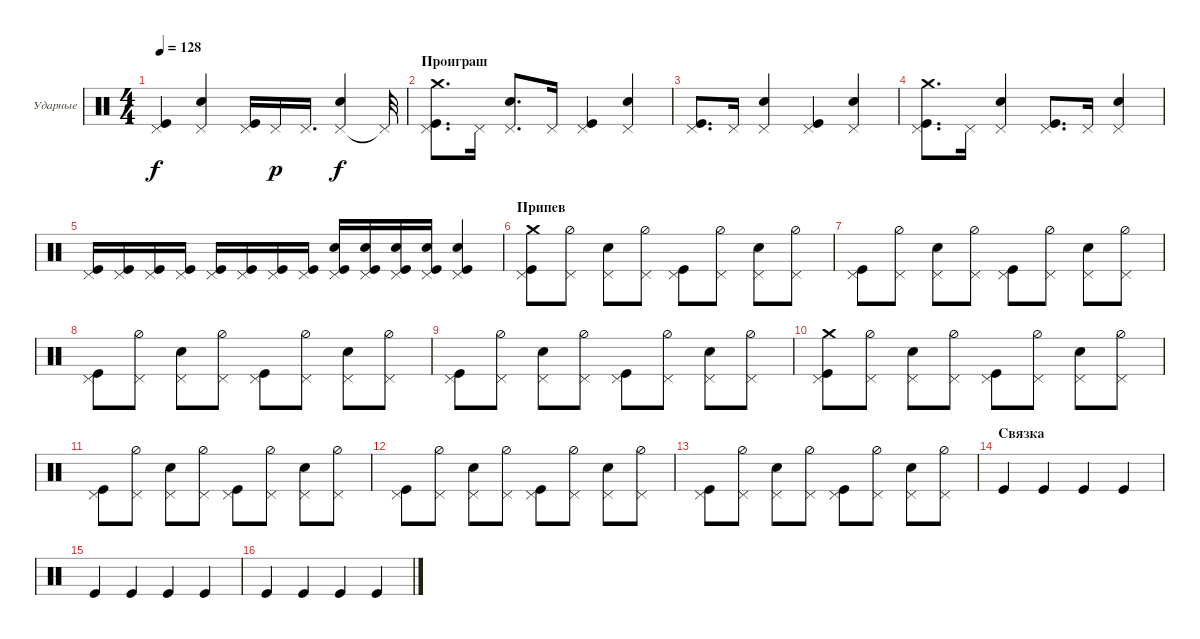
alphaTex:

\defaultSystemsLayout 4
\bracketExtendMode groupsimilarinstruments
\firstSystemTrackNameOrientation horizontal
\otherSystemsTrackNameOrientation horizontal
\track ("Е. Кулаков" "Ударные") {instrument percussion}
\staff {score}
\articulation defaults
\ts (4 4)
\tempo 128
\clef neutral
\ks c
("Pedal Hi-Hat (hit)" "Kick (hit)").4{dy f} ("Pedal Hi-Hat (hit)" "Snare (hit) 2").4 ("Pedal Hi-Hat (hit)" "Kick (hit)").16 "Pedal Hi-Hat (hit)".16{dy p} "Pedal Hi-Hat (hit)".16{d} ("Pedal Hi-Hat (hit)" "Snare (hit) 2").4{dy f} "Pedal Hi-Hat (hit)"{t}.32 |
\section ("" "Проиграш")
("Pedal Hi-Hat (hit)" "Kick (hit)" "Crash medium (hit)").8{d} "Pedal Hi-Hat (hit)".16 ("Pedal Hi-Hat (hit)" "Snare (hit) 2").8{d} "Pedal Hi-Hat (hit)".16 ("Pedal Hi-Hat (hit)" "Kick (hit)").4 ("Pedal Hi-Hat (hit)" "Snare (hit) 2").4 |
("Pedal Hi-Hat (hit)" "Kick (hit)").8{d} "Pedal Hi-Hat (hit)".16 ("Pedal Hi-Hat (hit)" "Snare (hit) 2").4 ("Pedal Hi-Hat (hit)" "Kick (hit)").4 ("Pedal Hi-Hat (hit)" "Snare (hit) 2").4 |
("Pedal Hi-Hat (hit)" "Kick (hit)" "Crash medium (hit)").8{d} "Pedal Hi-Hat (hit)".16 ("Pedal Hi-Hat (hit)" "Snare (hit) 2").4 ("Pedal Hi-Hat (hit)" "Kick (hit)").8{d} "Pedal Hi-Hat (hit)".16 ("Pedal Hi-Hat (hit)" "Snare (hit) 2").4 |
("Pedal Hi-Hat (hit)" "Kick (hit)").16 ("Pedal Hi-Hat (hit)" "Kick (hit)").16 ("Pedal Hi-Hat (hit)" "Kick (hit)").16 ("Pedal Hi-Hat (hit)" "Kick (hit)").16 ("Pedal Hi-Hat (hit)" "Kick (hit)").16 ("Pedal Hi-Hat (hit)" "Kick (hit)").16 ("Pedal Hi-Hat (hit)" "Kick (hit)").16 ("Pedal Hi-Hat (hit)" "Kick (hit)").16 ("Snare (hit) 2" "Kick (hit)" "Pedal Hi-Hat (hit)").16 ("Snare (hit) 2" "Kick (hit)" "Pedal Hi-Hat (hit)").16 ("Snare (hit) 2" "Kick (hit)" "Pedal Hi-Hat (hit)").16 ("Snare (hit) 2" "Kick (hit)" "Pedal Hi-Hat (hit)").16 ("Snare (hit) 2" "Kick (hit)" "Pedal Hi-Hat (hit)").4 |
\section ("" "Припев")
("Kick (hit)" "Pedal Hi-Hat (hit)" "Crash medium (hit)").8 ("Hi-Hat (half)" "Pedal Hi-Hat (hit)").8 ("Pedal Hi-Hat (hit)" "Snare (hit) 2").8 ("Hi-Hat (half)" "Pedal Hi-Hat (hit)").8 ("Kick (hit)" "Pedal Hi-Hat (hit)").8 ("Hi-Hat (half)" "Pedal Hi-Hat (hit)").8 ("Pedal Hi-Hat (hit)" "Snare (hit) 2").8 ("Hi-Hat (half)" "Pedal Hi-Hat (hit)").8 |
("Kick (hit)" "Pedal Hi-Hat (hit)").8 ("Hi-Hat (half)" "Pedal Hi-Hat (hit)").8 ("Pedal Hi-Hat (hit)" "Snare (hit) 2").8 ("Hi-Hat (half)" "Pedal Hi-Hat (hit)").8 ("Kick (hit)" "Pedal Hi-Hat (hit)").8 ("Hi-Hat (half)" "Pedal Hi-Hat (hit)").8 ("Pedal Hi-Hat (hit)" "Snare (hit) 2").8 ("Hi-Hat (half)" "Pedal Hi-Hat (hit)").8 |
("Kick (hit)" "Pedal Hi-Hat (hit)").8 ("Hi-Hat (half)" "Pedal Hi-Hat (hit)").8 ("Pedal Hi-Hat (hit)" "Snare (hit) 2").8 ("Hi-Hat (half)" "Pedal Hi-Hat (hit)").8 ("Kick (hit)" "Pedal Hi-Hat (hit)").8 ("Hi-Hat (half)" "Pedal Hi-Hat (hit)").8 ("Pedal Hi-Hat (hit)" "Snare (hit) 2").8 ("Hi-Hat (half)" "Pedal Hi-Hat (hit)").8 |
("Kick (hit)" "Pedal Hi-Hat (hit)").8 ("Hi-Hat (half)" "Pedal Hi-Hat (hit)").8 ("Pedal Hi-Hat (hit)" "Snare (hit) 2").8 ("Hi-Hat (half)" "Pedal Hi-Hat (hit)").8 ("Kick (hit)" "Pedal Hi-Hat (hit)").8 ("Hi-Hat (half)" "Pedal Hi-Hat (hit)").8 ("Pedal Hi-Hat (hit)" "Snare (hit) 2").8 ("Hi-Hat (half)" "Pedal Hi-Hat (hit)").8 |
("Kick (hit)" "Pedal Hi-Hat (hit)" "Crash medium (hit)").8 ("Hi-Hat (half)" "Pedal Hi-Hat (hit)").8 ("Pedal Hi-Hat (hit)" "Snare (hit) 2").8 ("Hi-Hat (half)" "Pedal Hi-Hat (hit)").8 ("Kick (hit)" "Pedal Hi-Hat (hit)").8 ("Hi-Hat (half)" "Pedal Hi-Hat (hit)").8 ("Pedal Hi-Hat (hit)" "Snare (hit) 2").8 ("Hi-Hat (half)" "Pedal Hi-Hat (hit)").8 |
("Kick (hit)" "Pedal Hi-Hat (hit)").8 ("Hi-Hat (half)" "Pedal Hi-Hat (hit)").8 ("Pedal Hi-Hat (hit)" "Snare (hit) 2").8 ("Hi-Hat (half)" "Pedal Hi-Hat (hit)").8 ("Kick (hit)" "Pedal Hi-Hat (hit)").8 ("Hi-Hat (half)" "Pedal Hi-Hat (hit)").8 ("Pedal Hi-Hat (hit)" "Snare (hit) 2").8 ("Hi-Hat (half)" "Pedal Hi-Hat (hit)").8 |
("Kick (hit)" "Pedal Hi-Hat (hit)").8 ("Hi-Hat (half)" "Pedal Hi-Hat (hit)").8 ("Pedal Hi-Hat (hit)" "Snare (hit) 2").8 ("Hi-Hat (half)" "Pedal Hi-Hat (hit)").8 ("Kick (hit)" "Pedal Hi-Hat (hit)").8 ("Hi-Hat (half)" "Pedal Hi-Hat (hit)").8 ("Pedal Hi-Hat (hit)" "Snare (hit) 2").8 ("Hi-Hat (half)" "Pedal Hi-Hat (hit)").8 |
("Kick (hit)" "Pedal Hi-Hat (hit)").8 ("Hi-Hat (half)" "Pedal Hi-Hat (hit)").8 ("Pedal Hi-Hat (hit)" "Snare (hit) 2").8 ("Hi-Hat (half)" "Pedal Hi-Hat (hit)").8 ("Kick (hit)" "Pedal Hi-Hat (hit)").8 ("Hi-Hat (half)" "Pedal Hi-Hat (hit)").8 ("Pedal Hi-Hat (hit)" "Snare (hit) 2").8 ("Hi-Hat (half)" "Pedal Hi-Hat (hit)").8 |
\section ("" "Связка")
"Kick (hit)".4 "Kick (hit)".4 "Kick (hit)".4 "Kick (hit)".4 |
"Kick (hit)".4 "Kick (hit)".4 "Kick (hit)".4 "Kick (hit)".4 |
"Kick (hit)".4 "Kick (hit)".4 "Kick (hit)".4 "Kick (hit)".4
